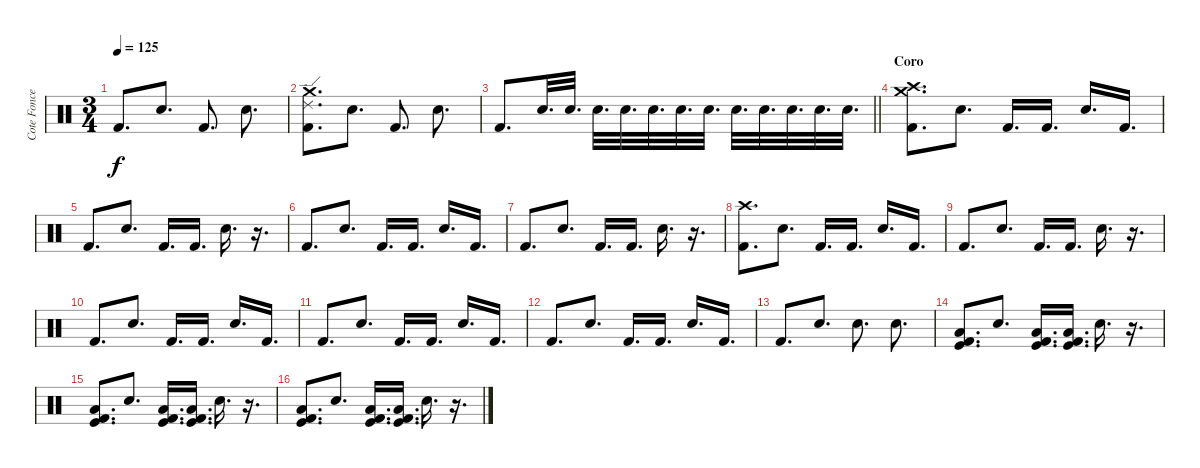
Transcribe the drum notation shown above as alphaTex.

\track ("Cote Foncea" "Cote Fonce") {instrument percussion}
\staff {score}
\articulation defaults
\ts (3 4)
\tempo 125
\clef neutral
\ks c "Kick (hit) 2".8{d dy f} "Snare (hit) 2".8{d} "Kick (hit) 2".8{d} "Snare (hit) 2".8{d}
|
("Ride (edge) 2" "Crash medium (hit)" "Kick (hit) 2").8{d} "Snare (hit) 2".8{d} "Kick (hit) 2".8{d} "Snare (hit) 2".8{d} |
\barLineRight lightlight "Kick (hit) 2".8{d} "Snare (hit) 2".32{d volume 6} "Snare (hit) 2".32{d volume 7} "Snare (hit) 2".32{d volume 8} "Snare (hit) 2".32{d volume 9} "Snare (hit) 2".32{d volume 10} "Snare (hit) 2".32{d volume 11} "Snare (hit) 2".32{d volume 16} "Snare (hit) 2".32{d} "Snare (hit) 2".32{d} "Snare (hit) 2".32{d} "Snare (hit) 2".32{d} "Snare (hit) 2".32{d}
|
\section ("" "Coro")
("Crash high (hit)" "Crash medium (hit)" "Kick (hit) 2").8{d} "Snare (hit) 2".8{d} "Kick (hit) 2".16{d} "Kick (hit) 2".16{d} "Snare (hit) 2".16{d} "Kick (hit) 2".16{d} |
"Kick (hit) 2".8{d} "Snare (hit) 2".8{d} "Kick (hit) 2".16{d} "Kick (hit) 2".16{d} "Snare (hit) 2".16{d} r.16{d} |
"Kick (hit) 2".8{d} "Snare (hit) 2".8{d} "Kick (hit) 2".16{d} "Kick (hit) 2".16{d} "Snare (hit) 2".16{d} "Kick (hit) 2".16{d} |
"Kick (hit) 2".8{d} "Snare (hit) 2".8{d} "Kick (hit) 2".16{d} "Kick (hit) 2".16{d} "Snare (hit) 2".16{d} r.16{d} |
("Crash high (hit)" "Kick (hit) 2").8{d} "Snare (hit) 2".8{d} "Kick (hit) 2".16{d} "Kick (hit) 2".16{d} "Snare (hit) 2".16{d} "Kick (hit) 2".16{d} |
"Kick (hit) 2".8{d} "Snare (hit) 2".8{d} "Kick (hit) 2".16{d} "Kick (hit) 2".16{d} "Snare (hit) 2".16{d} r.16{d} |
"Kick (hit) 2".8{d} "Snare (hit) 2".8{d} "Kick (hit) 2".16{d} "Kick (hit) 2".16{d} "Snare (hit) 2".16{d} "Kick (hit) 2".16{d} |
"Kick (hit) 2".8{d} "Snare (hit) 2".8{d} "Kick (hit) 2".16{d} "Kick (hit) 2".16{d} "Snare (hit) 2".16{d} "Kick (hit) 2".16{d} |
"Kick (hit) 2".8{d} "Snare (hit) 2".8{d} "Kick (hit) 2".16{d} "Kick (hit) 2".16{d} "Snare (hit) 2".16{d} "Kick (hit) 2".16{d} |
"Kick (hit) 2".8{d} "Snare (hit) 2".8{d} "Snare (hit) 2".8{d} "Snare (hit) 2".8{d} |
("Low Tom (hit)" "Kick (hit) 2" "Kick (hit)").8{d} "Snare (hit) 2".8{d} ("Low Tom (hit)" "Kick (hit) 2" "Kick (hit)").16{d} ("Low Tom (hit)" "Kick (hit) 2" "Kick (hit)").16{d} "Snare (hit) 2".16{d} r.16{d} |
("Low Tom (hit)" "Kick (hit) 2" "Kick (hit)").8{d} "Snare (hit) 2".8{d} ("Low Tom (hit)" "Kick (hit) 2" "Kick (hit)").16{d} ("Low Tom (hit)" "Kick (hit) 2" "Kick (hit)").16{d} "Snare (hit) 2".16{d} r.16{d} |
("Low Tom (hit)" "Kick (hit) 2" "Kick (hit)").8{d} "Snare (hit) 2".8{d} ("Low Tom (hit)" "Kick (hit) 2" "Kick (hit)").16{d} ("Low Tom (hit)" "Kick (hit) 2" "Kick (hit)").16{d} "Snare (hit) 2".16{d} r.16{d}
